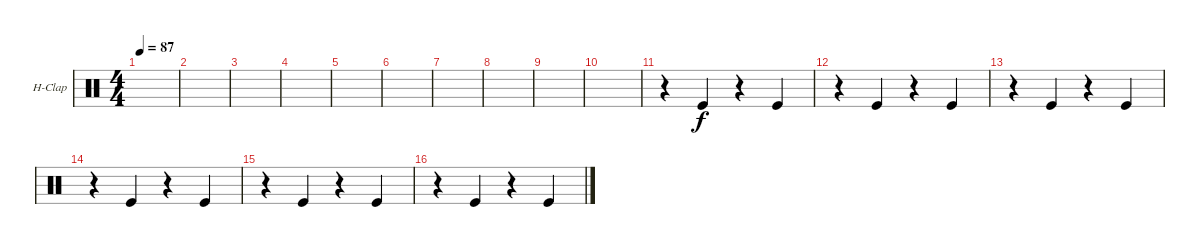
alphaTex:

\defaultSystemsLayout 4
\bracketExtendMode groupsimilarinstruments
\firstSystemTrackNameOrientation horizontal
\otherSystemsTrackNameOrientation horizontal
\track ("Hand Clap" "H-Clap") {instrument percussion}
\staff {score}
\articulation defaults
\ts (4 4)
\tempo 87
\clef neutral
\scale
0.474178
\ks c
|
\scale
0.262911 |
\scale
0.262911 |
\scale
0.333333 |
\scale
0.333333 |
\scale
0.333333 |
\scale
0.333333 |
\scale
0.333333 |
\scale
0.333333 |
\scale
0.333333 |
\scale
0.333333 r.4 "Kick (hit)".4 r.4 "Kick (hit)".4 |
\scale
0.333333 r.4 "Kick (hit)".4 r.4 "Kick (hit)".4 |
\scale
0.333333 r.4 "Kick (hit)".4 r.4 "Kick (hit)".4 |
\scale
0.333333 r.4 "Kick (hit)".4 r.4 "Kick (hit)".4 |
\scale
0.333333 r.4 "Kick (hit)".4 r.4 "Kick (hit)".4 |
\scale
0.333333 r.4 "Kick (hit)".4 r.4 "Kick (hit)".4
